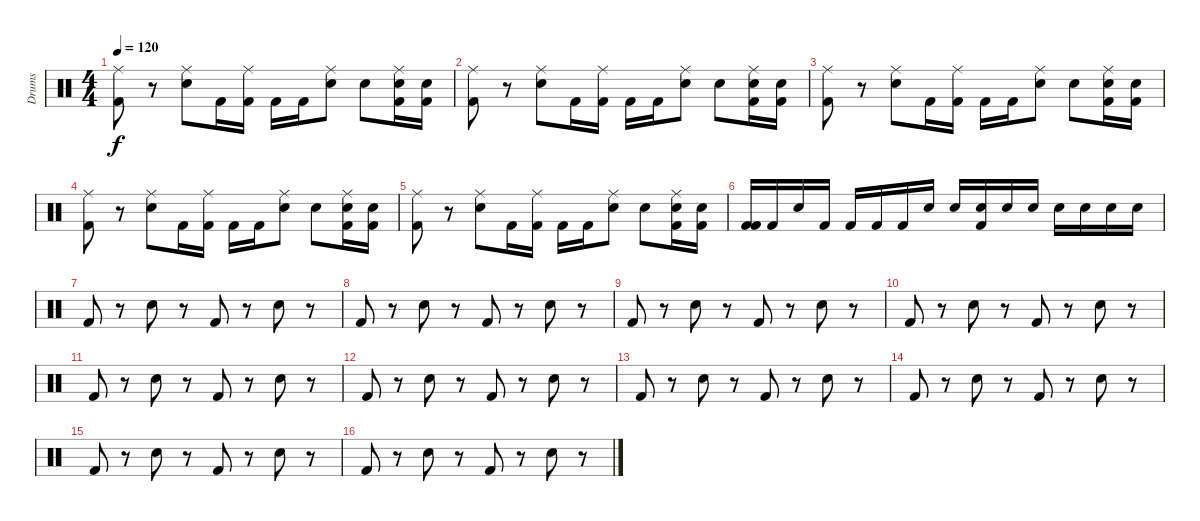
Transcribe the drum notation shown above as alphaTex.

\track ("Drums" "Drums") {instrument percussion}
\staff {score}
\articulation defaults
\ts (4 4)
\tempo 120
\clef neutral
\ks c
("Ride (middle)" "Kick (hit) 2").8{dy f} r.8 ("Ride (middle)" "Snare (hit) 2").8 "Kick (hit) 2".16 ("Ride (middle)" "Kick (hit) 2").16 "Kick (hit) 2".16 "Kick (hit) 2".16 ("Ride (middle)" "Snare (hit) 2").8 "Snare (hit) 2".8 ("Ride (middle)" "Electric Snare (hit)" "Kick (hit) 2").16 ("Electric Snare (hit)" "Kick (hit) 2").16 |
("Ride (middle)" "Kick (hit) 2").8 r.8 ("Ride (middle)" "Snare (hit) 2").8 "Kick (hit) 2".16 ("Ride (middle)" "Kick (hit) 2").16 "Kick (hit) 2".16 "Kick (hit) 2".16 ("Ride (middle)" "Snare (hit) 2").8 "Snare (hit) 2".8 ("Ride (middle)" "Electric Snare (hit)" "Kick (hit) 2").16 ("Electric Snare (hit)" "Kick (hit) 2").16 |
("Ride (middle)" "Kick (hit) 2").8 r.8 ("Ride (middle)" "Snare (hit) 2").8 "Kick (hit) 2".16 ("Ride (middle)" "Kick (hit) 2").16 "Kick (hit) 2".16 "Kick (hit) 2".16 ("Ride (middle)" "Snare (hit) 2").8 "Snare (hit) 2".8 ("Ride (middle)" "Electric Snare (hit)" "Kick (hit) 2").16 ("Electric Snare (hit)" "Kick (hit) 2").16 |
("Ride (middle)" "Kick (hit) 2").8 r.8 ("Ride (middle)" "Snare (hit) 2").8 "Kick (hit) 2".16 ("Ride (middle)" "Kick (hit) 2").16 "Kick (hit) 2".16 "Kick (hit) 2".16 ("Ride (middle)" "Snare (hit) 2").8 "Snare (hit) 2".8 ("Ride (middle)" "Electric Snare (hit)" "Kick (hit) 2").16 ("Electric Snare (hit)" "Kick (hit) 2").16 |
("Ride (middle)" "Kick (hit) 2").8 r.8 ("Ride (middle)" "Snare (hit) 2").8 "Kick (hit) 2".16 ("Ride (middle)" "Kick (hit) 2").16 "Kick (hit) 2".16 "Kick (hit) 2".16 ("Ride (middle)" "Snare (hit) 2").8 "Snare (hit) 2".8 ("Ride (middle)" "Electric Snare (hit)" "Kick (hit) 2").16 ("Electric Snare (hit)" "Kick (hit) 2").16 |
("Kick (hit) 2" "Kick (hit) 2").16 "Kick (hit) 2".16 "Snare (hit) 2".16 "Kick (hit) 2".16 "Kick (hit) 2".16 "Kick (hit) 2".16 "Kick (hit) 2".16 "Snare (hit) 2".16 "Snare (hit) 2".16 ("Electric Snare (hit)" "Kick (hit) 2").16 "Electric Snare (hit)".16 "Snare (hit) 2".16 "Electric Snare (hit)".16 "Electric Snare (hit)".16 "Electric Snare (hit)".16 "Electric Snare (hit)".16 |
"Kick (hit) 2".8 r.8 "Snare (hit) 2".8 r.8 "Kick (hit) 2".8 r.8 "Snare (hit) 2".8 r.8 |
"Kick (hit) 2".8 r.8 "Snare (hit) 2".8 r.8 "Kick (hit) 2".8 r.8 "Snare (hit) 2".8 r.8 |
"Kick (hit) 2".8 r.8 "Snare (hit) 2".8 r.8 "Kick (hit) 2".8 r.8 "Snare (hit) 2".8 r.8 |
"Kick (hit) 2".8 r.8 "Snare (hit) 2".8 r.8 "Kick (hit) 2".8 r.8 "Snare (hit) 2".8 r.8 |
"Kick (hit) 2".8 r.8 "Snare (hit) 2".8 r.8 "Kick (hit) 2".8 r.8 "Snare (hit) 2".8 r.8 |
"Kick (hit) 2".8 r.8 "Snare (hit) 2".8 r.8 "Kick (hit) 2".8 r.8 "Snare (hit) 2".8 r.8 |
"Kick (hit) 2".8 r.8 "Snare (hit) 2".8 r.8 "Kick (hit) 2".8 r.8 "Snare (hit) 2".8 r.8 |
"Kick (hit) 2".8 r.8 "Snare (hit) 2".8 r.8 "Kick (hit) 2".8 r.8 "Snare (hit) 2".8 r.8 |
"Kick (hit) 2".8 r.8 "Snare (hit) 2".8 r.8 "Kick (hit) 2".8 r.8 "Snare (hit) 2".8 r.8 |
"Kick (hit) 2".8 r.8 "Snare (hit) 2".8 r.8 "Kick (hit) 2".8 r.8 "Snare (hit) 2".8 r.8
